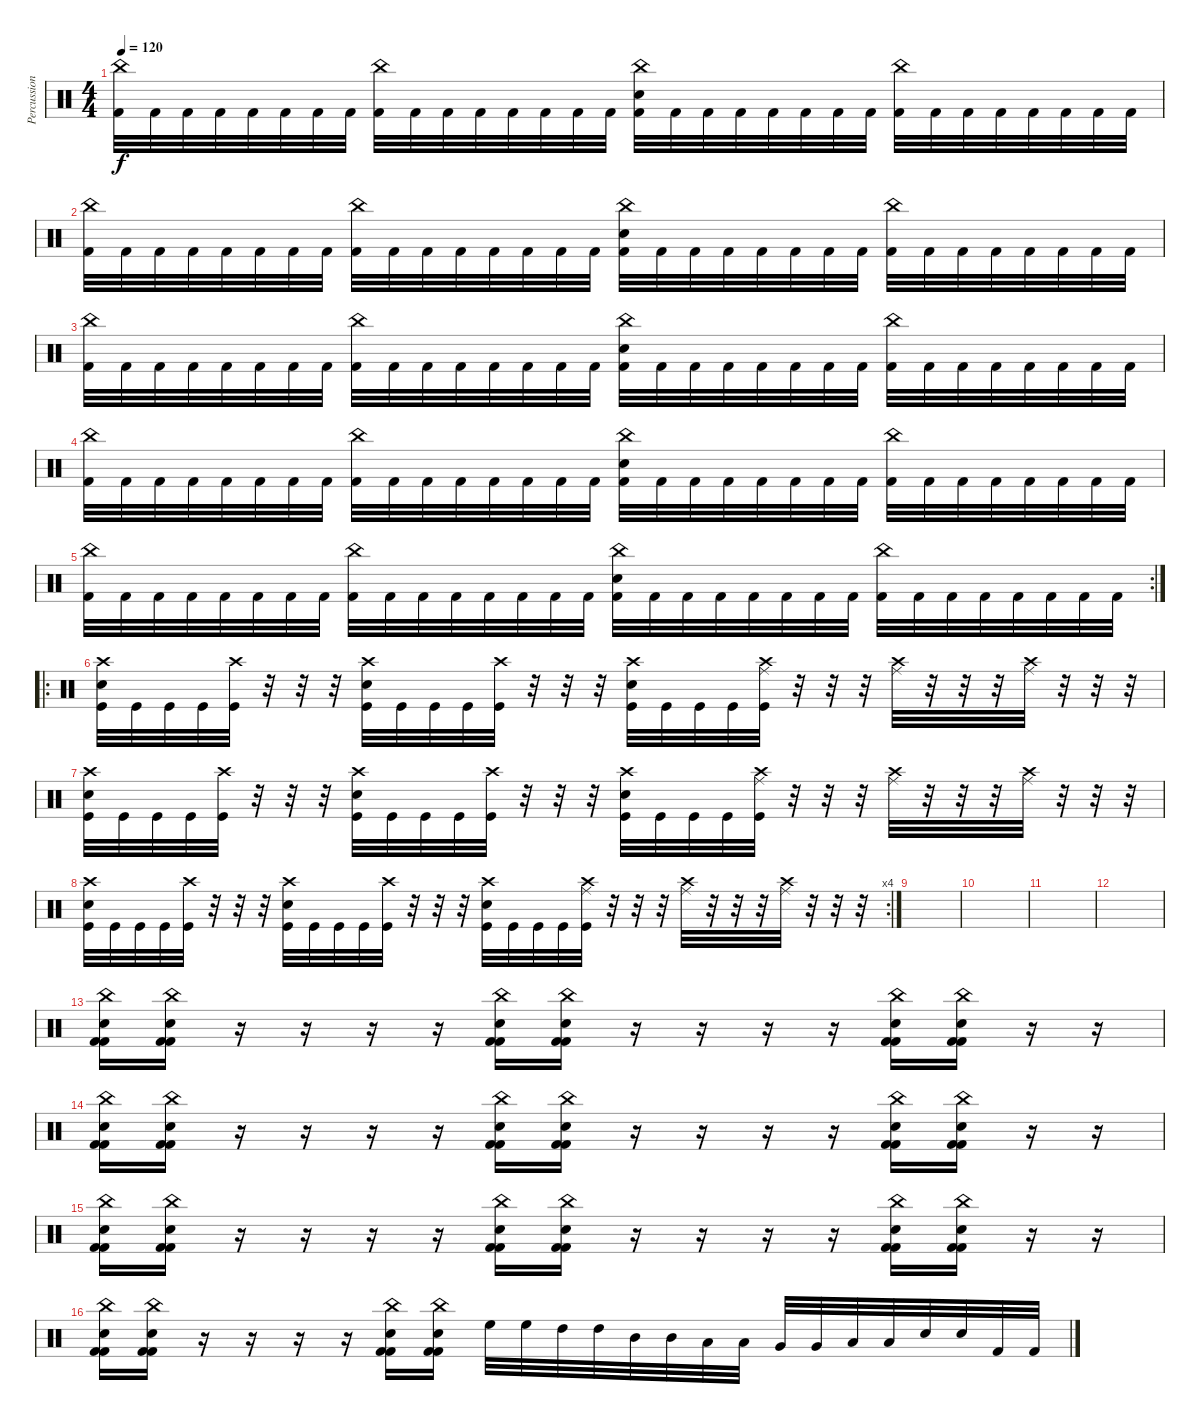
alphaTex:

\track ("Percussions" "Percussion") {instrument percussion}
\staff {score}
\articulation defaults
\ts (4 4)
\tempo 120
\clef neutral
\ks c
("China (hit)" "Kick (hit) 2").32{dy f} "Kick (hit) 2".32 "Kick (hit) 2".32 "Kick (hit) 2".32 "Kick (hit) 2".32 "Kick (hit) 2".32 "Kick (hit) 2".32 "Kick (hit) 2".32 ("China (hit)" "Kick (hit) 2").32 "Kick (hit) 2".32 "Kick (hit) 2".32 "Kick (hit) 2".32 "Kick (hit) 2".32 "Kick (hit) 2".32 "Kick (hit) 2".32 "Kick (hit) 2".32 ("China (hit)" "Electric Snare (hit)" "Kick (hit) 2").32 "Kick (hit) 2".32 "Kick (hit) 2".32 "Kick (hit) 2".32 "Kick (hit) 2".32 "Kick (hit) 2".32 "Kick (hit) 2".32 "Kick (hit) 2".32 ("China (hit)" "Kick (hit) 2").32 "Kick (hit) 2".32 "Kick (hit) 2".32 "Kick (hit) 2".32 "Kick (hit) 2".32 "Kick (hit) 2".32 "Kick (hit) 2".32 "Kick (hit) 2".32 |
("China (hit)" "Kick (hit) 2").32 "Kick (hit) 2".32 "Kick (hit) 2".32 "Kick (hit) 2".32 "Kick (hit) 2".32 "Kick (hit) 2".32 "Kick (hit) 2".32 "Kick (hit) 2".32 ("China (hit)" "Kick (hit) 2").32 "Kick (hit) 2".32 "Kick (hit) 2".32 "Kick (hit) 2".32 "Kick (hit) 2".32 "Kick (hit) 2".32 "Kick (hit) 2".32 "Kick (hit) 2".32 ("China (hit)" "Electric Snare (hit)" "Kick (hit) 2").32 "Kick (hit) 2".32 "Kick (hit) 2".32 "Kick (hit) 2".32 "Kick (hit) 2".32 "Kick (hit) 2".32 "Kick (hit) 2".32 "Kick (hit) 2".32 ("China (hit)" "Kick (hit) 2").32 "Kick (hit) 2".32 "Kick (hit) 2".32 "Kick (hit) 2".32 "Kick (hit) 2".32 "Kick (hit) 2".32 "Kick (hit) 2".32 "Kick (hit) 2".32 |
("China (hit)" "Kick (hit) 2").32 "Kick (hit) 2".32 "Kick (hit) 2".32 "Kick (hit) 2".32 "Kick (hit) 2".32 "Kick (hit) 2".32 "Kick (hit) 2".32 "Kick (hit) 2".32 ("China (hit)" "Kick (hit) 2").32 "Kick (hit) 2".32 "Kick (hit) 2".32 "Kick (hit) 2".32 "Kick (hit) 2".32 "Kick (hit) 2".32 "Kick (hit) 2".32 "Kick (hit) 2".32 ("China (hit)" "Electric Snare (hit)" "Kick (hit) 2").32 "Kick (hit) 2".32 "Kick (hit) 2".32 "Kick (hit) 2".32 "Kick (hit) 2".32 "Kick (hit) 2".32 "Kick (hit) 2".32 "Kick (hit) 2".32 ("China (hit)" "Kick (hit) 2").32 "Kick (hit) 2".32 "Kick (hit) 2".32 "Kick (hit) 2".32 "Kick (hit) 2".32 "Kick (hit) 2".32 "Kick (hit) 2".32 "Kick (hit) 2".32 |
("China (hit)" "Kick (hit) 2").32 "Kick (hit) 2".32 "Kick (hit) 2".32 "Kick (hit) 2".32 "Kick (hit) 2".32 "Kick (hit) 2".32 "Kick (hit) 2".32 "Kick (hit) 2".32 ("China (hit)" "Kick (hit) 2").32 "Kick (hit) 2".32 "Kick (hit) 2".32 "Kick (hit) 2".32 "Kick (hit) 2".32 "Kick (hit) 2".32 "Kick (hit) 2".32 "Kick (hit) 2".32 ("China (hit)" "Electric Snare (hit)" "Kick (hit) 2").32 "Kick (hit) 2".32 "Kick (hit) 2".32 "Kick (hit) 2".32 "Kick (hit) 2".32 "Kick (hit) 2".32 "Kick (hit) 2".32 "Kick (hit) 2".32 ("China (hit)" "Kick (hit) 2").32 "Kick (hit) 2".32 "Kick (hit) 2".32 "Kick (hit) 2".32 "Kick (hit) 2".32 "Kick (hit) 2".32 "Kick (hit) 2".32 "Kick (hit) 2".32 |
\rc 2
("China (hit)" "Kick (hit) 2").32 "Kick (hit) 2".32 "Kick (hit) 2".32 "Kick (hit) 2".32 "Kick (hit) 2".32 "Kick (hit) 2".32 "Kick (hit) 2".32 "Kick (hit) 2".32 ("China (hit)" "Kick (hit) 2").32 "Kick (hit) 2".32 "Kick (hit) 2".32 "Kick (hit) 2".32 "Kick (hit) 2".32 "Kick (hit) 2".32 "Kick (hit) 2".32 "Kick (hit) 2".32 ("China (hit)" "Electric Snare (hit)" "Kick (hit) 2").32 "Kick (hit) 2".32 "Kick (hit) 2".32 "Kick (hit) 2".32 "Kick (hit) 2".32 "Kick (hit) 2".32 "Kick (hit) 2".32 "Kick (hit) 2".32 ("China (hit)" "Kick (hit) 2").32 "Kick (hit) 2".32 "Kick (hit) 2".32 "Kick (hit) 2".32 "Kick (hit) 2".32 "Kick (hit) 2".32 "Kick (hit) 2".32 "Kick (hit) 2".32 |
\ro
("Crash high (hit)" "Electric Snare (hit)" "Kick (hit)").32 "Kick (hit)".32 "Kick (hit)".32 "Kick (hit)".32 ("Crash high (hit)" "Kick (hit)").32 r.32 r.32 r.32 ("Crash high (hit)" "Electric Snare (hit)" "Kick (hit)").32 "Kick (hit)".32 "Kick (hit)".32 "Kick (hit)".32 ("Crash high (hit)" "Kick (hit)").32 r.32 r.32 r.32 ("Crash high (hit)" "Electric Snare (hit)" "Kick (hit)").32 "Kick (hit)".32 "Kick (hit)".32 "Kick (hit)".32 ("Crash high (hit)" "Ride (middle)" "Kick (hit)").32 r.32 r.32 r.32 ("Crash high (hit)" "Ride (middle)").32 r.32 r.32 r.32 ("Crash high (hit)" "Ride (middle)").32 r.32 r.32 r.32 |
("Crash high (hit)" "Electric Snare (hit)" "Kick (hit)").32 "Kick (hit)".32 "Kick (hit)".32 "Kick (hit)".32 ("Crash high (hit)" "Kick (hit)").32 r.32 r.32 r.32 ("Crash high (hit)" "Electric Snare (hit)" "Kick (hit)").32 "Kick (hit)".32 "Kick (hit)".32 "Kick (hit)".32 ("Crash high (hit)" "Kick (hit)").32 r.32 r.32 r.32 ("Crash high (hit)" "Electric Snare (hit)" "Kick (hit)").32 "Kick (hit)".32 "Kick (hit)".32 "Kick (hit)".32 ("Crash high (hit)" "Ride (middle)" "Kick (hit)").32 r.32 r.32 r.32 ("Crash high (hit)" "Ride (middle)").32 r.32 r.32 r.32 ("Crash high (hit)" "Ride (middle)").32 r.32 r.32 r.32 |
\rc 4
("Crash high (hit)" "Electric Snare (hit)" "Kick (hit)").32 "Kick (hit)".32 "Kick (hit)".32 "Kick (hit)".32 ("Crash high (hit)" "Kick (hit)").32 r.32 r.32 r.32 ("Crash high (hit)" "Electric Snare (hit)" "Kick (hit)").32 "Kick (hit)".32 "Kick (hit)".32 "Kick (hit)".32 ("Crash high (hit)" "Kick (hit)").32 r.32 r.32 r.32 ("Crash high (hit)" "Electric Snare (hit)" "Kick (hit)").32 "Kick (hit)".32 "Kick (hit)".32 "Kick (hit)".32 ("Crash high (hit)" "Ride (middle)" "Kick (hit)").32 r.32 r.32 r.32 ("Crash high (hit)" "Ride (middle)").32 r.32 r.32 r.32 ("Crash high (hit)" "Ride (middle)").32 r.32 r.32 r.32 |
|
|
|
|
("China (hit)" "Electric Snare (hit)" "Kick (hit) 2" "Kick (hit) 2").16 ("China (hit)" "Electric Snare (hit)" "Kick (hit) 2" "Kick (hit) 2").16 r.16{volume 0} r.16 r.16 r.16 ("China (hit)" "Electric Snare (hit)" "Kick (hit) 2" "Kick (hit) 2").16{volume 11} ("China (hit)" "Electric Snare (hit)" "Kick (hit) 2" "Kick (hit) 2").16 r.16{volume 0} r.16 r.16 r.16 ("China (hit)" "Electric Snare (hit)" "Kick (hit) 2" "Kick (hit) 2").16{volume 11} ("China (hit)" "Electric Snare (hit)" "Kick (hit) 2" "Kick (hit) 2").16 r.16{volume 0} r.16 |
("China (hit)" "Electric Snare (hit)" "Kick (hit) 2" "Kick (hit) 2").16{volume 11} ("China (hit)" "Electric Snare (hit)" "Kick (hit) 2" "Kick (hit) 2").16 r.16{volume 0} r.16 r.16 r.16 ("China (hit)" "Electric Snare (hit)" "Kick (hit) 2" "Kick (hit) 2").16{volume 11} ("China (hit)" "Electric Snare (hit)" "Kick (hit) 2" "Kick (hit) 2").16 r.16{volume 0} r.16 r.16 r.16 ("China (hit)" "Electric Snare (hit)" "Kick (hit) 2" "Kick (hit) 2").16{volume 10} ("China (hit)" "Electric Snare (hit)" "Kick (hit) 2" "Kick (hit) 2").16 r.16{volume 0} r.16 |
("China (hit)" "Electric Snare (hit)" "Kick (hit) 2" "Kick (hit) 2").16{volume 11} ("China (hit)" "Electric Snare (hit)" "Kick (hit) 2" "Kick (hit) 2").16 r.16{volume 0} r.16 r.16 r.16 ("China (hit)" "Electric Snare (hit)" "Kick (hit) 2" "Kick (hit) 2").16{volume 11} ("China (hit)" "Electric Snare (hit)" "Kick (hit) 2" "Kick (hit) 2").16 r.16{volume 0} r.16 r.16 r.16 ("China (hit)" "Electric Snare (hit)" "Kick (hit) 2" "Kick (hit) 2").16{volume 10} ("China (hit)" "Electric Snare (hit)" "Kick (hit) 2" "Kick (hit) 2").16 r.16{volume 0} r.16 |
("China (hit)" "Electric Snare (hit)" "Kick (hit) 2" "Kick (hit) 2").16{volume 11} ("China (hit)" "Electric Snare (hit)" "Kick (hit) 2" "Kick (hit) 2").16 r.16{volume 0} r.16 r.16 r.16 ("China (hit)" "Electric Snare (hit)" "Kick (hit) 2" "Kick (hit) 2").16{volume 11} ("China (hit)" "Electric Snare (hit)" "Kick (hit) 2" "Kick (hit) 2").16 "High Floor Tom (hit)".32 "High Floor Tom (hit)".32 "High Tom (hit)".32 "High Tom (hit)".32 "Mid Tom (hit)".32 "Mid Tom (hit)".32 "Low Tom (hit)".32 "Low Tom (hit)".32 "Very Low Tom (hit)".32 "Very Low Tom (hit)".32 "Low Floor Tom (hit)".32 "Low Floor Tom (hit)".32 "Electric Snare (hit)".32 "Electric Snare (hit)".32 "Kick (hit) 2".32 "Kick (hit) 2".32
